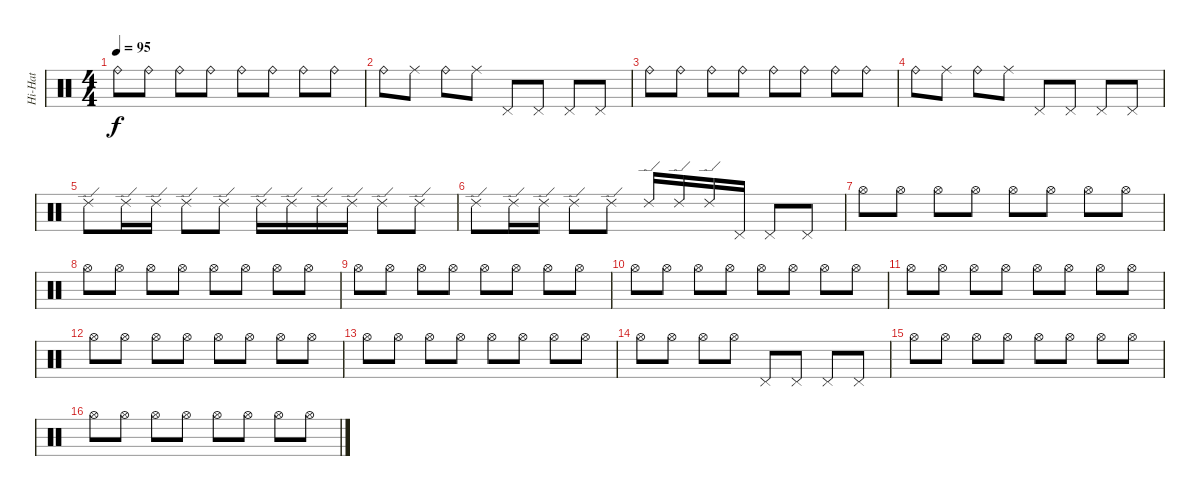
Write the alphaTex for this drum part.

\track ("Hi-Hat" "Hi-Hat") {instrument percussion}
\staff {score}
\articulation defaults
\ts (4 4)
\tempo 95
\clef neutral
\ks c "Ride (bell)".8{dy f} "Ride (bell)".8 "Ride (bell)".8 "Ride (bell)".8 "Ride (bell)".8 "Ride (bell)".8 "Ride (bell)".8 "Ride (bell)".8
|
"Ride (bell)".8 "Ride (middle)".8 "Ride (bell)".8 "Ride (middle)".8 "Pedal Hi-Hat (hit)".8 "Pedal Hi-Hat (hit)".8 "Pedal Hi-Hat (hit)".8 "Pedal Hi-Hat (hit)".8 |
"Ride (bell)".8 "Ride (bell)".8 "Ride (bell)".8 "Ride (bell)".8 "Ride (bell)".8 "Ride (bell)".8 "Ride (bell)".8 "Ride (bell)".8 |
"Ride (bell)".8 "Ride (middle)".8 "Ride (bell)".8 "Ride (middle)".8 "Pedal Hi-Hat (hit)".8 "Pedal Hi-Hat (hit)".8 "Pedal Hi-Hat (hit)".8 "Pedal Hi-Hat (hit)".8 |
"Ride (edge) 2".8 "Ride (edge) 2".16 "Ride (edge) 2".16 "Ride (edge) 2".8 "Ride (edge) 2".8 "Ride (edge) 2".16 "Ride (edge) 2".16 "Ride (edge) 2".16 "Ride (edge) 2".16 "Ride (edge) 2".8 "Ride (edge) 2".8 |
"Ride (edge) 2".8 "Ride (edge) 2".16 "Ride (edge) 2".16 "Ride (edge) 2".8 "Ride (edge) 2".8 "Ride (edge) 2".16 "Ride (edge) 2".16 "Ride (edge) 2".16 "Pedal Hi-Hat (hit)".16 "Pedal Hi-Hat (hit)".8 "Pedal Hi-Hat (hit)".8 |
"Hi-Hat (open)".8 "Hi-Hat (open)".8 "Hi-Hat (open)".8 "Hi-Hat (open)".8 "Hi-Hat (open)".8 "Hi-Hat (open)".8 "Hi-Hat (open)".8 "Hi-Hat (open)".8 |
"Hi-Hat (open)".8 "Hi-Hat (open)".8 "Hi-Hat (open)".8 "Hi-Hat (open)".8 "Hi-Hat (open)".8 "Hi-Hat (open)".8 "Hi-Hat (open)".8 "Hi-Hat (open)".8 |
"Hi-Hat (open)".8 "Hi-Hat (open)".8 "Hi-Hat (open)".8 "Hi-Hat (open)".8 "Hi-Hat (open)".8 "Hi-Hat (open)".8 "Hi-Hat (open)".8 "Hi-Hat (open)".8 |
"Hi-Hat (open)".8 "Hi-Hat (open)".8 "Hi-Hat (open)".8 "Hi-Hat (open)".8 "Hi-Hat (open)".8 "Hi-Hat (open)".8 "Hi-Hat (open)".8 "Hi-Hat (open)".8 |
"Hi-Hat (open)".8 "Hi-Hat (open)".8 "Hi-Hat (open)".8 "Hi-Hat (open)".8 "Hi-Hat (open)".8 "Hi-Hat (open)".8 "Hi-Hat (open)".8 "Hi-Hat (open)".8 |
"Hi-Hat (open)".8 "Hi-Hat (open)".8 "Hi-Hat (open)".8 "Hi-Hat (open)".8 "Hi-Hat (open)".8 "Hi-Hat (open)".8 "Hi-Hat (open)".8 "Hi-Hat (open)".8 |
"Hi-Hat (open)".8 "Hi-Hat (open)".8 "Hi-Hat (open)".8 "Hi-Hat (open)".8 "Hi-Hat (open)".8 "Hi-Hat (open)".8 "Hi-Hat (open)".8 "Hi-Hat (open)".8 |
"Hi-Hat (open)".8 "Hi-Hat (open)".8 "Hi-Hat (open)".8 "Hi-Hat (open)".8 "Pedal Hi-Hat (hit)".8 "Pedal Hi-Hat (hit)".8 "Pedal Hi-Hat (hit)".8 "Pedal Hi-Hat (hit)".8 |
"Hi-Hat (open)".8 "Hi-Hat (open)".8 "Hi-Hat (open)".8 "Hi-Hat (open)".8 "Hi-Hat (open)".8 "Hi-Hat (open)".8 "Hi-Hat (open)".8 "Hi-Hat (open)".8 |
"Hi-Hat (open)".8 "Hi-Hat (open)".8 "Hi-Hat (open)".8 "Hi-Hat (open)".8 "Hi-Hat (open)".8 "Hi-Hat (open)".8 "Hi-Hat (open)".8 "Hi-Hat (open)".8
